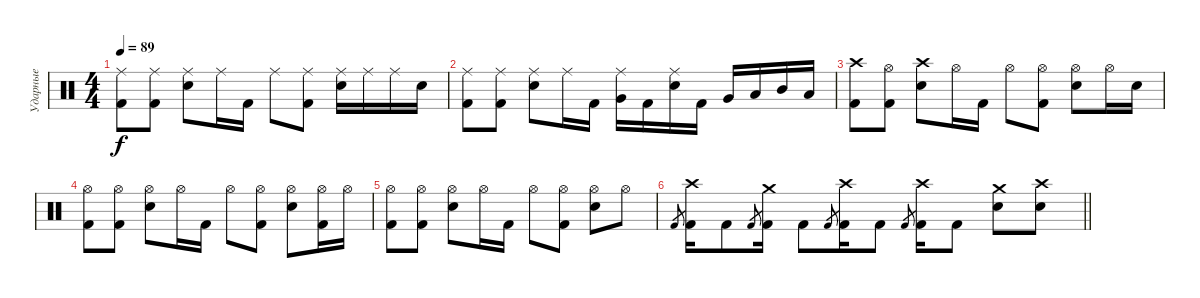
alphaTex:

\track ("Ударные" "Ударные") {instrument percussion}
\staff {score}
\articulation defaults
\ts (4 4)
\tempo 89
\clef neutral
\ks c
("Ride (middle)" "Kick (hit) 2").8{dy f} ("Ride (middle)" "Kick (hit) 2").8 ("Ride (middle)" "Snare (hit) 2").8 "Ride (middle)".16 "Kick (hit) 2".16 "Ride (middle)".8 ("Ride (middle)" "Kick (hit) 2").8 ("Ride (middle)" "Snare (hit) 2").16 "Ride (middle)".16 "Ride (middle)".16 "Snare (hit) 2".16 |
("Ride (middle)" "Kick (hit) 2").8 ("Ride (middle)" "Kick (hit) 2").8 ("Ride (middle)" "Snare (hit) 2").8 "Ride (middle)".16 "Kick (hit) 2".16 ("Ride (middle)" "Very Low Tom (hit)").16 "Kick (hit) 2".16 ("Ride (middle)" "Snare (hit) 2").16 "Kick (hit) 2".16 "Very Low Tom (hit)".16 "Low Tom (hit)".16 "Mid Tom (hit)".16 "Low Floor Tom (hit)".16 |
("Crash high (hit)" "Kick (hit) 2").8 ("Hi-Hat (open)" "Kick (hit) 2").8 ("Crash high (hit)" "Snare (hit) 2").8 "Hi-Hat (open)".16 "Kick (hit) 2".16 "Hi-Hat (open)".8 ("Hi-Hat (open)" "Kick (hit) 2").8 ("Hi-Hat (open)" "Snare (hit) 2").8 "Hi-Hat (open)".16 "Snare (hit) 2".16 |
("Hi-Hat (open)" "Kick (hit) 2").8 ("Hi-Hat (open)" "Kick (hit) 2").8 ("Hi-Hat (open)" "Snare (hit) 2").8 "Hi-Hat (open)".16 "Kick (hit) 2".16 "Hi-Hat (open)".8 ("Hi-Hat (open)" "Kick (hit) 2").8 ("Hi-Hat (open)" "Snare (hit) 2").8 ("Hi-Hat (open)" "Kick (hit) 2").16 "Hi-Hat (open)".16 |
("Hi-Hat (open)" "Kick (hit) 2").8 ("Hi-Hat (open)" "Kick (hit) 2").8 ("Hi-Hat (open)" "Snare (hit) 2").8 "Hi-Hat (open)".16 "Kick (hit) 2".16 "Hi-Hat (open)".8 ("Hi-Hat (open)" "Kick (hit) 2").8 ("Hi-Hat (open)" "Snare (hit) 2").8 "Hi-Hat (open)".8 |
\barLineRight lightlight "Kick (hit) 2".8{gr}
("Crash high (hit)" "Kick (hit) 2").16 "Kick (hit) 2".8 "Kick (hit) 2".8{gr} ("Crash medium (hit)" "Kick (hit) 2").16 "Kick (hit) 2".8 "Kick (hit) 2".8{gr} ("Crash high (hit)" "Kick (hit) 2").16 "Kick (hit) 2".8 "Kick (hit) 2".8{gr} ("Crash high (hit)" "Kick (hit) 2").16 "Kick (hit) 2".8 ("Crash medium (hit)" "Snare (hit) 2").8 ("Crash high (hit)" "Snare (hit) 2").8
